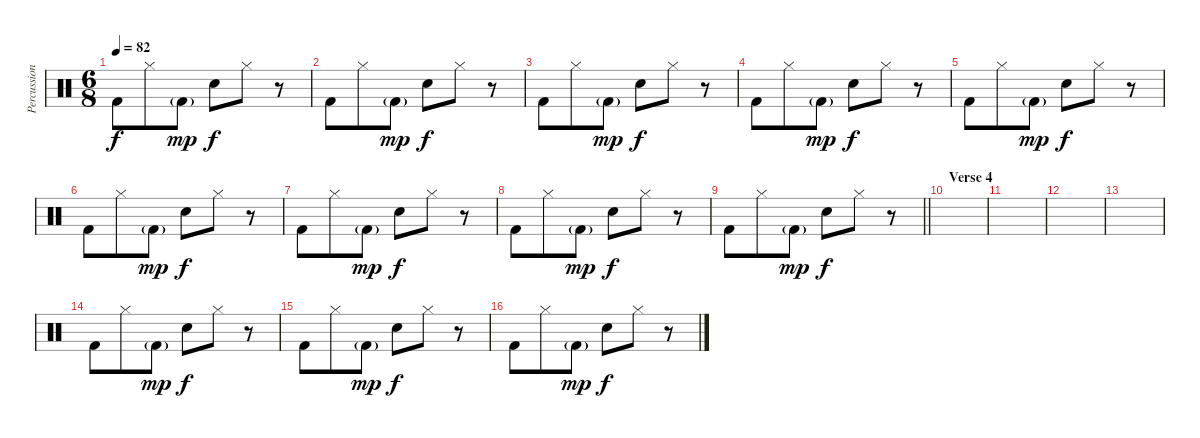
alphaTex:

\track ("Percussion" "Percussion") {instrument percussion}
\staff {score}
\articulation defaults
\ts (6 8)
\tempo 82
\clef neutral
\ks c "Kick (hit) 2".8{dy f} "Hi-Hat (closed)".8 "Kick (hit) 2"{g}.8{dy mp} "Snare (hit) 2".8{dy f} "Hi-Hat (closed)".8
r.8 |
"Kick (hit) 2".8 "Hi-Hat (closed)".8 "Kick (hit) 2"{g}.8{dy mp} "Snare (hit) 2".8{dy f} "Hi-Hat (closed)".8 r.8 |
"Kick (hit) 2".8 "Hi-Hat (closed)".8 "Kick (hit) 2"{g}.8{dy mp} "Snare (hit) 2".8{dy f} "Hi-Hat (closed)".8 r.8 |
"Kick (hit) 2".8 "Hi-Hat (closed)".8 "Kick (hit) 2"{g}.8{dy mp} "Snare (hit) 2".8{dy f} "Hi-Hat (closed)".8 r.8 |
"Kick (hit) 2".8 "Hi-Hat (closed)".8 "Kick (hit) 2"{g}.8{dy mp} "Snare (hit) 2".8{dy f} "Hi-Hat (closed)".8 r.8 |
"Kick (hit) 2".8 "Hi-Hat (closed)".8 "Kick (hit) 2"{g}.8{dy mp} "Snare (hit) 2".8{dy f} "Hi-Hat (closed)".8 r.8 |
"Kick (hit) 2".8 "Hi-Hat (closed)".8 "Kick (hit) 2"{g}.8{dy mp} "Snare (hit) 2".8{dy f} "Hi-Hat (closed)".8 r.8 |
"Kick (hit) 2".8 "Hi-Hat (closed)".8 "Kick (hit) 2"{g}.8{dy mp} "Snare (hit) 2".8{dy f} "Hi-Hat (closed)".8 r.8 |
\barLineRight lightlight "Kick (hit) 2".8 "Hi-Hat (closed)".8 "Kick (hit) 2"{g}.8{dy mp} "Snare (hit) 2".8{dy f} "Hi-Hat (closed)".8
r.8 |
\section ("" "Verse 4")
|
|
|
|
"Kick (hit) 2".8 "Hi-Hat (closed)".8 "Kick (hit) 2"{g}.8{dy mp} "Snare (hit) 2".8{dy f} "Hi-Hat (closed)".8 r.8 |
"Kick (hit) 2".8 "Hi-Hat (closed)".8 "Kick (hit) 2"{g}.8{dy mp} "Snare (hit) 2".8{dy f} "Hi-Hat (closed)".8 r.8 |
"Kick (hit) 2".8 "Hi-Hat (closed)".8 "Kick (hit) 2"{g}.8{dy mp} "Snare (hit) 2".8{dy f} "Hi-Hat (closed)".8 r.8
